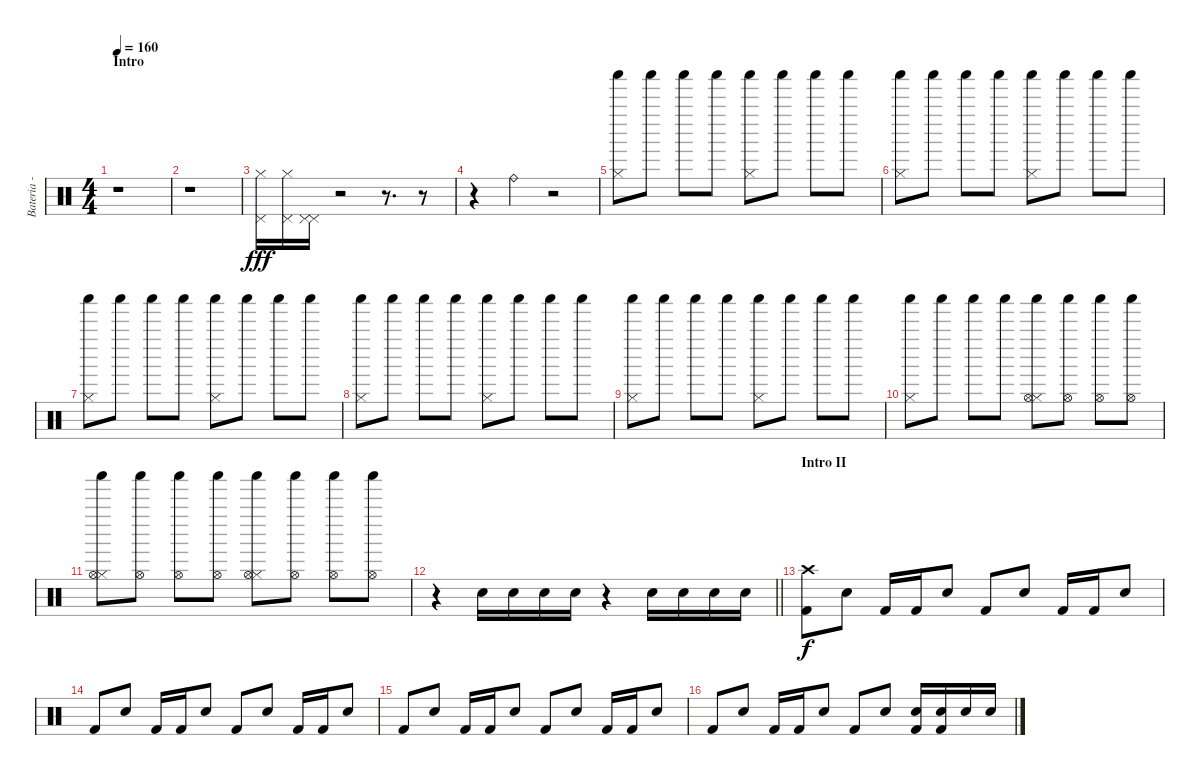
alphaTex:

\track ("Bateria - Larzon" "Bateria - ") {instrument percussion}
\staff {score}
\articulation defaults
\ts (4 4)
\section ("" "Intro")
\tempo 160
\clef neutral
\ks c
r.1{dy fff} |
r.1 |
("Pedal Hi-Hat (hit)" "Hi-Hat (closed)").16 ("Hi-Hat (closed)" "Pedal Hi-Hat (hit)").16 ("Pedal Hi-Hat (hit)" "Pedal Hi-Hat (hit)").16 r.2 r.8{d} r.8 |
r.4 "Ride (bell)".4 r.2 |
("Shaker (hit)" "Hi-Hat (closed)").8 "Shaker (hit)".8 "Shaker (hit)".8 "Shaker (hit)".8 ("Shaker (hit)" "Hi-Hat (closed)").8 "Shaker (hit)".8 "Shaker (hit)".8 "Shaker (hit)".8 |
("Shaker (hit)" "Hi-Hat (closed)").8 "Shaker (hit)".8 "Shaker (hit)".8 "Shaker (hit)".8 ("Shaker (hit)" "Hi-Hat (closed)").8 "Shaker (hit)".8 "Shaker (hit)".8 "Shaker (hit)".8 |
("Shaker (hit)" "Hi-Hat (closed)").8 "Shaker (hit)".8 "Shaker (hit)".8 "Shaker (hit)".8 ("Shaker (hit)" "Hi-Hat (closed)").8 "Shaker (hit)".8 "Shaker (hit)".8 "Shaker (hit)".8 |
("Shaker (hit)" "Hi-Hat (closed)").8 "Shaker (hit)".8 "Shaker (hit)".8 "Shaker (hit)".8 ("Shaker (hit)" "Hi-Hat (closed)").8 "Shaker (hit)".8 "Shaker (hit)".8 "Shaker (hit)".8 |
("Shaker (hit)" "Hi-Hat (closed)").8 "Shaker (hit)".8 "Shaker (hit)".8 "Shaker (hit)".8 ("Shaker (hit)" "Hi-Hat (closed)").8 "Shaker (hit)".8 "Shaker (hit)".8 "Shaker (hit)".8 |
("Shaker (hit)" "Hi-Hat (closed)").8 "Shaker (hit)".8 "Shaker (hit)".8 "Shaker (hit)".8 ("Shaker (hit)" "Hi-Hat (closed)" "Hi-Hat (open)").8 ("Shaker (hit)" "Hi-Hat (open)").8 ("Shaker (hit)" "Hi-Hat (open)").8 ("Shaker (hit)" "Hi-Hat (open)").8 |
("Shaker (hit)" "Hi-Hat (closed)" "Hi-Hat (open)").8 ("Shaker (hit)" "Hi-Hat (open)").8 ("Shaker (hit)" "Hi-Hat (open)").8 ("Shaker (hit)" "Hi-Hat (open)").8 ("Shaker (hit)" "Hi-Hat (closed)" "Hi-Hat (open)").8 ("Shaker (hit)" "Hi-Hat (open)").8 ("Shaker (hit)" "Hi-Hat (open)").8 ("Shaker (hit)" "Hi-Hat (open)").8 |
\barLineRight lightlight
r.4 "Snare (hit) 2".16 "Snare (hit) 2".16 "Snare (hit) 2".16 "Snare (hit) 2".16 r.4 "Snare (hit) 2".16 "Snare (hit) 2".16 "Snare (hit) 2".16 "Snare (hit) 2".16 |
\section ("" "Intro II")
("Kick (hit) 2" "Crash high (hit)").8{dy f} "Snare (hit) 2".8 "Kick (hit) 2".16 "Kick (hit) 2".16 "Snare (hit) 2".8 "Kick (hit) 2".8 "Snare (hit) 2".8 "Kick (hit) 2".16 "Kick (hit) 2".16 "Snare (hit) 2".8 |
"Kick (hit) 2".8 "Snare (hit) 2".8 "Kick (hit) 2".16 "Kick (hit) 2".16 "Snare (hit) 2".8 "Kick (hit) 2".8 "Snare (hit) 2".8 "Kick (hit) 2".16 "Kick (hit) 2".16 "Snare (hit) 2".8 |
"Kick (hit) 2".8 "Snare (hit) 2".8 "Kick (hit) 2".16 "Kick (hit) 2".16 "Snare (hit) 2".8 "Kick (hit) 2".8 "Snare (hit) 2".8 "Kick (hit) 2".16 "Kick (hit) 2".16 "Snare (hit) 2".8 |
"Kick (hit) 2".8 "Snare (hit) 2".8 "Kick (hit) 2".16 "Kick (hit) 2".16 "Snare (hit) 2".8 "Kick (hit) 2".8 "Snare (hit) 2".8 ("Kick (hit) 2" "Snare (hit) 2").16 ("Kick (hit) 2" "Snare (hit) 2").16 "Snare (hit) 2".16 "Snare (hit) 2".16
